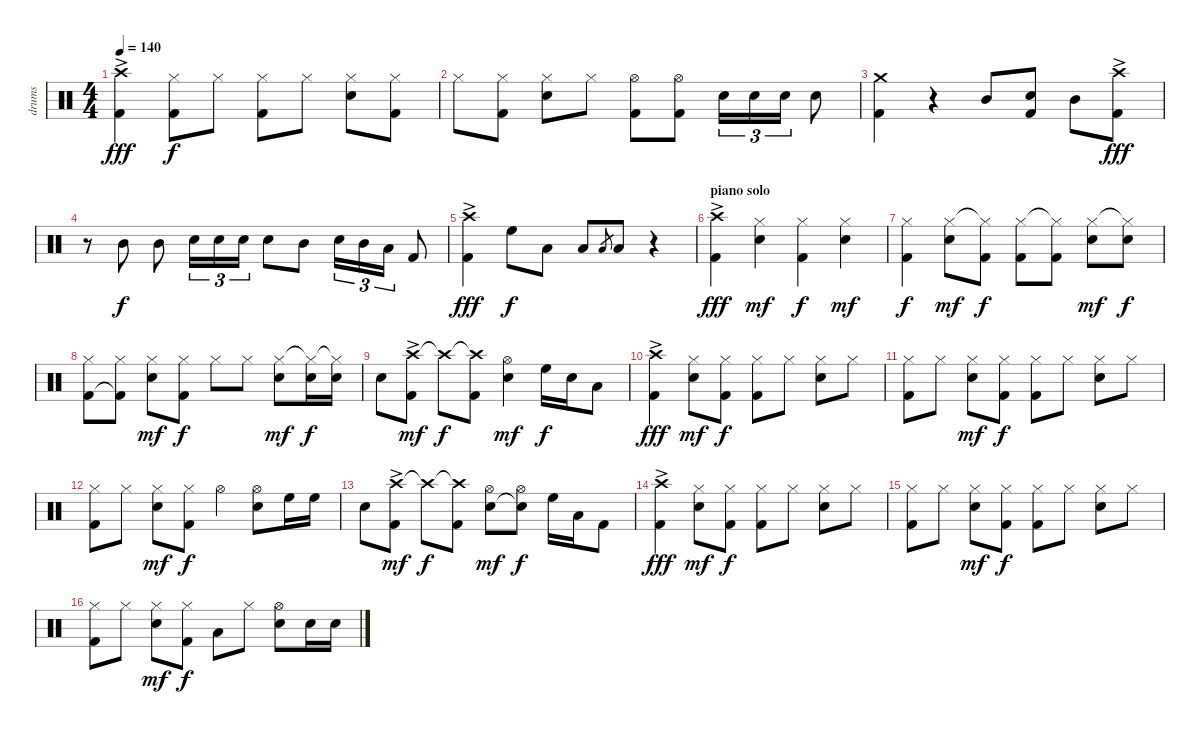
\track ("drums" "drums") {instrument percussion}
\staff {score}
\articulation defaults
\ts (4 4)
\tempo 140
\clef neutral
\ks c
("Crash high (hit)"{ac} "Kick (hit) 2").4{dy fff} ("Hi-Hat (closed)" "Kick (hit) 2").8{dy f} "Hi-Hat (closed)".8 ("Hi-Hat (closed)" "Kick (hit) 2").8 "Hi-Hat (closed)".8 ("Hi-Hat (closed)" "Snare (hit) 2").8 ("Hi-Hat (closed)" "Kick (hit) 2").8 |
"Hi-Hat (closed)".8 ("Hi-Hat (closed)" "Kick (hit) 2").8 ("Hi-Hat (closed)" "Snare (hit) 2").8 "Hi-Hat (closed)".8 ("Hi-Hat (open)" "Kick (hit) 2").8 ("Hi-Hat (open)" "Kick (hit) 2").8 "Snare (hit) 2".16{tu (3 2)} "Snare (hit) 2".16{tu (3 2)} "Snare (hit) 2".16{tu (3 2)} "Snare (hit) 2".8 |
("Crash medium (hit)" "Kick (hit) 2").4 r.4 "Mid Tom (hit)".8 ("Snare (hit) 2" "Kick (hit) 2").8 "Mid Tom (hit)".8 ("Crash high (hit)"{ac} "Kick (hit) 2").8{dy fff} |
r.8 "Mid Tom (hit)".8{dy f} "Mid Tom (hit)".8 "Snare (hit) 2".16{tu (3 2)} "Snare (hit) 2".16{tu (3 2)} "Snare (hit) 2".16{tu (3 2)} "Snare (hit) 2".8 "Mid Tom (hit)".8 "Snare (hit) 2".16{tu (3 2)} "Mid Tom (hit)".16{tu (3 2)} "Low Tom (hit)".16{tu (3 2)} "Kick (hit) 2".8 |
("Crash high (hit)"{ac} "Kick (hit) 2").4{dy fff} "High Floor Tom (hit)".8{dy f} "Low Tom (hit)".8 "Low Tom (hit)".8 "Low Tom (hit)".8{gr} "Low Tom (hit)".8 r.4 |
\section ("" "piano solo")
("Kick (hit) 2" "Crash high (hit)"{ac}).4{dy fff} ("Hi-Hat (closed)" "Snare (hit) 2").4{dy mf} ("Hi-Hat (closed)" "Kick (hit) 2").4{dy f} ("Hi-Hat (closed)" "Snare (hit) 2").4{dy mf} |
("Hi-Hat (closed)" "Kick (hit) 2").4{dy f} ("Hi-Hat (closed)" "Snare (hit) 2").8{dy mf} ("Hi-Hat (closed)"{t} "Kick (hit) 2").8{dy f} ("Hi-Hat (closed)" "Kick (hit) 2").8 ("Hi-Hat (closed)"{t} "Kick (hit) 2").8 ("Hi-Hat (closed)" "Snare (hit) 2").8{dy mf} ("Hi-Hat (closed)"{t} "Snare (hit) 2").8{dy f} |
("Hi-Hat (closed)" "Kick (hit) 2").8 ("Hi-Hat (closed)" "Kick (hit) 2"{t}).8 ("Hi-Hat (closed)" "Snare (hit) 2").8{dy mf} ("Hi-Hat (closed)" "Kick (hit) 2").8{dy f} "Hi-Hat (closed)".8 "Hi-Hat (closed)".8 ("Hi-Hat (closed)" "Snare (hit) 2").8{dy mf} ("Hi-Hat (closed)"{t} "Snare (hit) 2").16{dy f} ("Hi-Hat (closed)"{t} "Snare (hit) 2").16 |
"Snare (hit) 2".8 ("Crash high (hit)"{ac} "Kick (hit) 2").8{dy mf} "Crash high (hit)"{t}.8{dy f} ("Crash high (hit)"{t} "Kick (hit) 2").8 ("Hi-Hat (open)" "Snare (hit) 2").4{dy mf} "High Floor Tom (hit)".16{dy f} "Snare (hit) 2".16 "Low Tom (hit)".8 |
("Kick (hit) 2" "Crash high (hit)"{ac}).4{dy fff} ("Hi-Hat (closed)" "Snare (hit) 2").8{dy mf} ("Hi-Hat (closed)" "Kick (hit) 2").8{dy f} ("Hi-Hat (closed)" "Kick (hit) 2").8 "Hi-Hat (closed)".8 ("Hi-Hat (closed)" "Snare (hit) 2").8 "Hi-Hat (closed)".8 |
("Kick (hit) 2" "Hi-Hat (closed)").8 "Hi-Hat (closed)".8 ("Hi-Hat (closed)" "Snare (hit) 2").8{dy mf} ("Hi-Hat (closed)" "Kick (hit) 2").8{dy f} ("Hi-Hat (closed)" "Kick (hit) 2").8 "Hi-Hat (closed)".8 ("Hi-Hat (closed)" "Snare (hit) 2").8 "Hi-Hat (closed)".8 |
("Kick (hit) 2" "Hi-Hat (closed)").8 "Hi-Hat (closed)".8 ("Hi-Hat (closed)" "Snare (hit) 2").8{dy mf} ("Hi-Hat (closed)" "Kick (hit) 2").8{dy f} "Hi-Hat (open)".4 ("Hi-Hat (open)" "Snare (hit) 2").8 "High Floor Tom (hit)".16 "High Floor Tom (hit)".16 |
"Snare (hit) 2".8 ("Crash high (hit)"{ac} "Kick (hit) 2").8{dy mf} "Crash high (hit)"{t}.8{dy f} ("Crash high (hit)"{t} "Kick (hit) 2").8 ("Hi-Hat (open)" "Snare (hit) 2").8{dy mf} ("Hi-Hat (open)" "Snare (hit) 2"{t}).8{dy f} "High Floor Tom (hit)".16 "Low Tom (hit)".16 "Kick (hit) 2".8 |
("Kick (hit) 2" "Crash high (hit)"{ac}).4{dy fff} ("Hi-Hat (closed)" "Snare (hit) 2").8{dy mf} ("Hi-Hat (closed)" "Kick (hit) 2").8{dy f} ("Hi-Hat (closed)" "Kick (hit) 2").8 "Hi-Hat (closed)".8 ("Hi-Hat (closed)" "Snare (hit) 2").8 "Hi-Hat (closed)".8 |
("Kick (hit) 2" "Hi-Hat (closed)").8 "Hi-Hat (closed)".8 ("Hi-Hat (closed)" "Snare (hit) 2").8{dy mf} ("Hi-Hat (closed)" "Kick (hit) 2").8{dy f} ("Hi-Hat (closed)" "Kick (hit) 2").8 "Hi-Hat (closed)".8 ("Hi-Hat (closed)" "Snare (hit) 2").8 "Hi-Hat (closed)".8 |
("Kick (hit) 2" "Hi-Hat (closed)").8 "Hi-Hat (closed)".8 ("Hi-Hat (closed)" "Snare (hit) 2").8{dy mf} ("Hi-Hat (closed)" "Kick (hit) 2").8{dy f} "Low Floor Tom (hit)".8 "Hi-Hat (closed)".8 ("Hi-Hat (open)" "Snare (hit) 2").8 "Snare (hit) 2".16 "Snare (hit) 2".16
